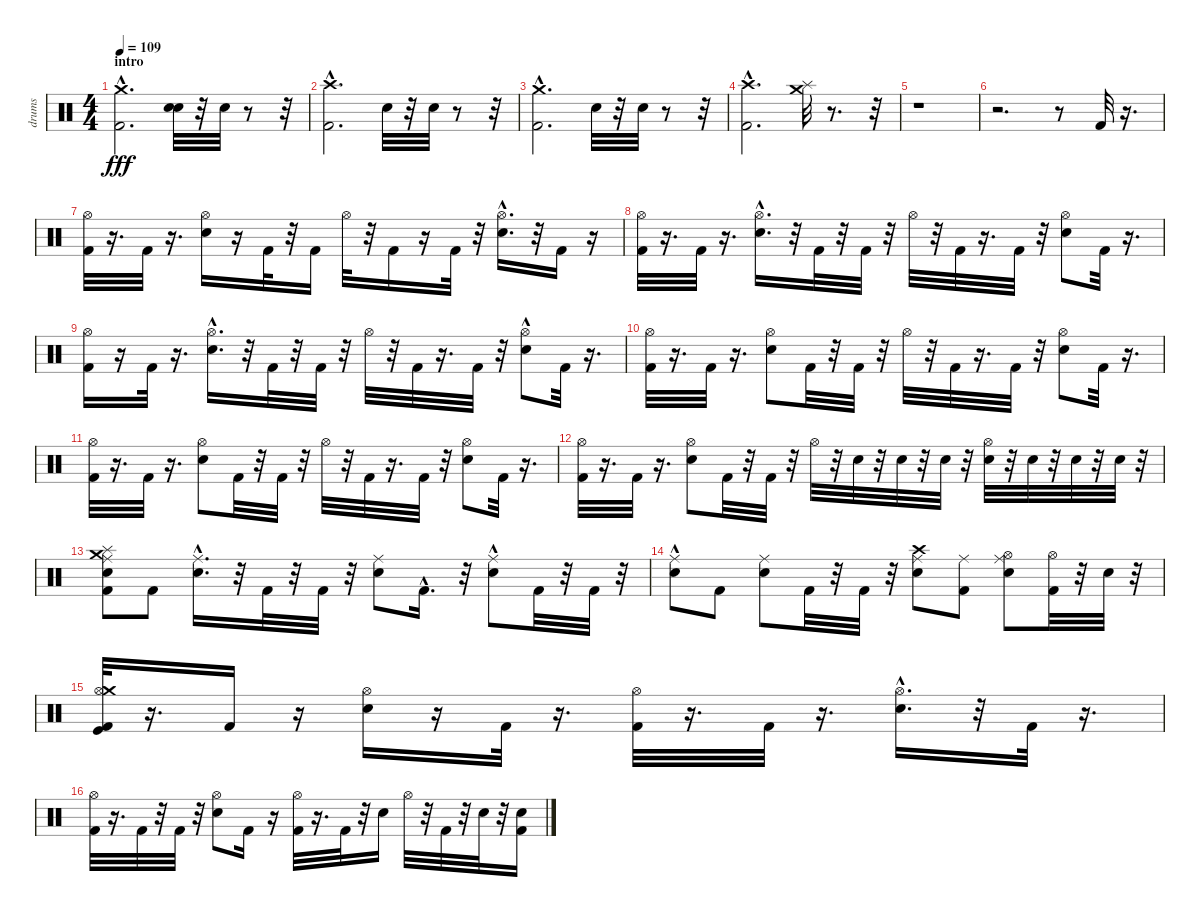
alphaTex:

\track ("drums" "drums") {instrument percussion}
\staff {score}
\articulation defaults
\ts (4 4)
\section ("" "intro")
\tempo 109
\clef neutral
\ks c
("Kick (hit) 2"{hac} "Crash medium (hit)"{hac}).2{d dy fff} ("Snare (hit) 2" "Electric Snare (hit)").32 r.32 "Snare (hit) 2".32 r.8 r.32 |
("Kick (hit) 2"{hac} "Crash high (hit)"{hac}).2{d} "Snare (hit) 2".32 r.32 "Snare (hit) 2".32 r.8 r.32 |
("Kick (hit) 2"{hac} "Crash medium (hit)"{hac}).2{d} "Snare (hit) 2".32 r.32 "Snare (hit) 2".32 r.8 r.32 |
("Kick (hit) 2"{hac} "Crash high (hit)").2{d} ("Splash (hit)" "Crash medium (hit)").32 r.8{d} r.32 |
r.1 |
r.2{d} r.8 "Kick (hit) 2".32{volume 15 balance 8} r.16{d} |
("Kick (hit) 2" "Hi-Hat (open)").32 r.16{d} "Kick (hit) 2".32 r.16{d} ("Snare (hit) 2" "Hi-Hat (open)").16 r.16 "Kick (hit) 2".32 r.32 "Kick (hit) 2".16 "Hi-Hat (open)".32 r.32 "Kick (hit) 2".16 r.16 "Kick (hit) 2".32 r.32 ("Snare (hit) 2"{hac} "Hi-Hat (open)").16{d} r.32 "Kick (hit) 2".16 r.16 |
("Kick (hit) 2" "Hi-Hat (open)").32 r.16{d} "Kick (hit) 2".32 r.16{d} ("Snare (hit) 2"{hac} "Hi-Hat (open)").16{d} r.32 "Kick (hit) 2".32 r.32 "Kick (hit) 2".32 r.32 "Hi-Hat (open)".32 r.32 "Kick (hit) 2".32 r.16{d} "Kick (hit) 2".32 r.32 ("Snare (hit) 2" "Hi-Hat (open)").8 "Kick (hit) 2".32 r.16{d} |
("Kick (hit) 2" "Hi-Hat (open)").16 r.16 "Kick (hit) 2".32 r.16{d} ("Snare (hit) 2"{hac} "Hi-Hat (open)").16{d} r.32 "Kick (hit) 2".32 r.32 "Kick (hit) 2".32 r.32 "Hi-Hat (open)".32 r.32 "Kick (hit) 2".32 r.16{d} "Kick (hit) 2".32 r.32 ("Snare (hit) 2"{hac} "Hi-Hat (open)").8 "Kick (hit) 2".32 r.16{d} |
("Kick (hit) 2" "Hi-Hat (open)").32 r.16{d} "Kick (hit) 2".32 r.16{d} ("Snare (hit) 2" "Hi-Hat (open)").8 "Kick (hit) 2".32 r.32 "Kick (hit) 2".32 r.32 "Hi-Hat (open)".32 r.32 "Kick (hit) 2".32 r.16{d} "Kick (hit) 2".32 r.32 ("Snare (hit) 2" "Hi-Hat (open)").8 "Kick (hit) 2".32 r.16{d} |
("Kick (hit) 2" "Hi-Hat (open)").32 r.16{d} "Kick (hit) 2".32 r.16{d} ("Snare (hit) 2" "Hi-Hat (open)").8 "Kick (hit) 2".32 r.32 "Kick (hit) 2".32 r.32 "Hi-Hat (open)".32 r.32 "Kick (hit) 2".32 r.16{d} "Kick (hit) 2".32 r.32 ("Snare (hit) 2" "Hi-Hat (open)").8 "Kick (hit) 2".32 r.16{d} |
("Kick (hit) 2" "Hi-Hat (open)").32 r.16{d} "Kick (hit) 2".32 r.16{d} ("Snare (hit) 2" "Hi-Hat (open)").8 "Kick (hit) 2".32 r.32 "Kick (hit) 2".32 r.32 "Hi-Hat (open)".32 r.32 "Snare (hit) 2".32 r.32 "Snare (hit) 2".32 r.32 "Snare (hit) 2".32 r.32 ("Snare (hit) 2" "Hi-Hat (open)").32 r.32 "Snare (hit) 2".32 r.32 "Snare (hit) 2".32 r.32 "Snare (hit) 2".32 r.32 |
("Kick (hit) 2" "Snare (hit) 2" "Ride (middle)" "Splash (hit)" "Crash medium (hit)").8 "Kick (hit) 2".8 ("Snare (hit) 2"{hac} "Ride (middle)"{hac}).16{d} r.32 "Kick (hit) 2".32 r.32 "Kick (hit) 2".32 r.32 ("Snare (hit) 2" "Ride (middle)").8 "Kick (hit) 2"{hac}.16{d} r.32 ("Snare (hit) 2" "Ride (middle)"{hac}).8 "Kick (hit) 2".32 r.32 "Kick (hit) 2".32 r.32 |
("Snare (hit) 2" "Ride (middle)"{hac}).8 "Kick (hit) 2".8 ("Snare (hit) 2" "Ride (middle)").8 "Kick (hit) 2".32 r.32 "Kick (hit) 2".32 r.32 ("Snare (hit) 2" "Crash high (hit)" "Ride (middle)").8 ("Kick (hit) 2" "Ride (middle)").8 ("Snare (hit) 2" "Hi-Hat (open)" "Ride (middle)").8 ("Kick (hit) 2" "Hi-Hat (open)").32 r.32 "Snare (hit) 2".32 r.32 |
("Kick (hit)" "Kick (hit) 2" "Hi-Hat (open)" "Crash medium (hit)").32 r.16{d} "Kick (hit) 2".16 r.16 ("Snare (hit) 2" "Hi-Hat (open)").16 r.16 "Kick (hit) 2".32 r.16{d} ("Kick (hit) 2" "Hi-Hat (open)").32 r.16{d} "Kick (hit) 2".32 r.16{d} ("Snare (hit) 2"{hac} "Hi-Hat (open)").16{d} r.32 "Kick (hit) 2".32 r.16{d} |
("Kick (hit) 2" "Hi-Hat (open)").32 r.16{d} "Kick (hit) 2".32 r.32 "Kick (hit) 2".32 r.32 ("Snare (hit) 2" "Hi-Hat (open)").8 "Kick (hit) 2".16 r.16 ("Kick (hit) 2" "Hi-Hat (open)").32 r.16{d} "Kick (hit) 2".32 r.32 "Snare (hit) 2".16 "Hi-Hat (open)".32 r.32 "Kick (hit) 2".32 r.32 "Snare (hit) 2".32 r.32 ("Kick (hit) 2" "Snare (hit) 2").16
